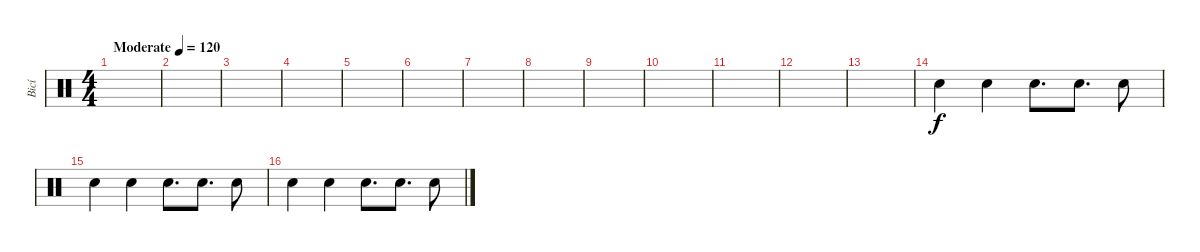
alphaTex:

\track ("Bicí" "Bicí") {instrument percussion}
\staff {score}
\articulation defaults
\ts (4 4)
\tempo (120 "Moderate")
\clef neutral
\ks c
|
|
|
|
|
|
|
|
|
|
|
|
|
"Hand Clap (hit)".4 "Hand Clap (hit)".4 "Hand Clap (hit)".8{d} "Hand Clap (hit)".8{d} "Hand Clap (hit)".8 |
"Hand Clap (hit)".4 "Hand Clap (hit)".4 "Hand Clap (hit)".8{d} "Hand Clap (hit)".8{d} "Hand Clap (hit)".8 |
"Hand Clap (hit)".4 "Hand Clap (hit)".4 "Hand Clap (hit)".8{d} "Hand Clap (hit)".8{d} "Hand Clap (hit)".8
